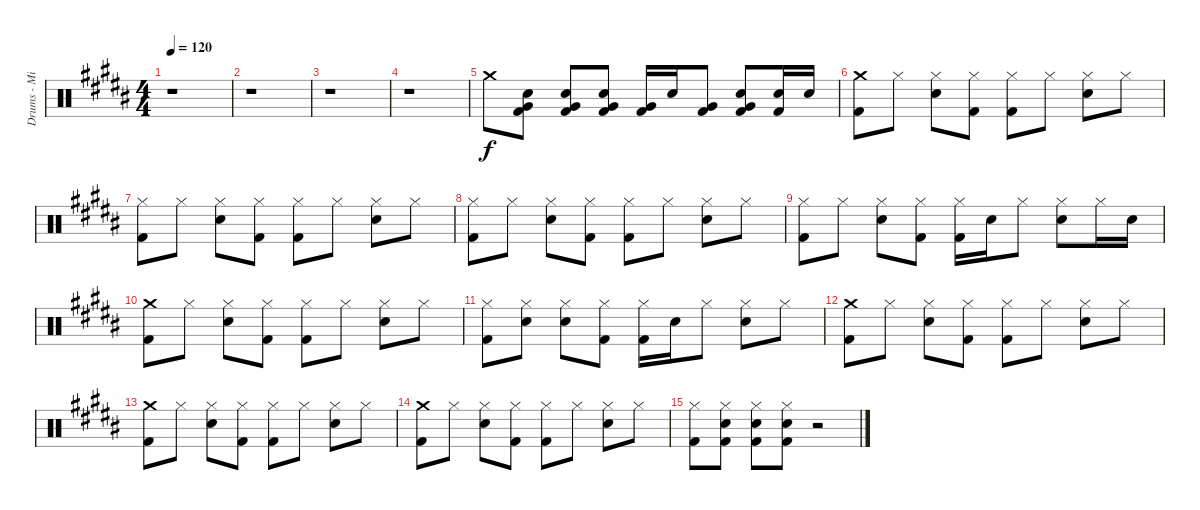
\track ("Drums - Minh-Thu" "Drums - Mi") {instrument percussion}
\staff {score}
\articulation defaults
\ts (4 4)
\tempo 120
\clef neutral
\ks b
r.1{dy f} |
r.1 |
r.1 |
r.1 |
"Crash medium (hit)".8 ("Electric Snare (hit)" "Very Low Tom (hit)" "Kick (hit) 2").8 ("Electric Snare (hit)" "Very Low Tom (hit)" "Kick (hit) 2").8 ("Electric Snare (hit)" "Very Low Tom (hit)" "Kick (hit) 2").8 ("Very Low Tom (hit)" "Kick (hit) 2").16 "Electric Snare (hit)".16 ("Very Low Tom (hit)" "Kick (hit) 2").8 ("Electric Snare (hit)" "Very Low Tom (hit)" "Kick (hit) 2").8 ("Electric Snare (hit)" "Kick (hit) 2").16 "Electric Snare (hit)".16 |
("Crash medium (hit)" "Kick (hit) 2").8 "Hi-Hat (closed)".8 ("Hi-Hat (closed)" "Electric Snare (hit)").8 ("Hi-Hat (closed)" "Kick (hit) 2").8 ("Hi-Hat (closed)" "Kick (hit) 2").8 "Hi-Hat (closed)".8 ("Hi-Hat (closed)" "Electric Snare (hit)").8 "Hi-Hat (closed)".8 |
("Hi-Hat (closed)" "Kick (hit) 2").8 "Hi-Hat (closed)".8 ("Hi-Hat (closed)" "Electric Snare (hit)").8 ("Hi-Hat (closed)" "Kick (hit) 2").8 ("Hi-Hat (closed)" "Kick (hit) 2").8 "Hi-Hat (closed)".8 ("Hi-Hat (closed)" "Electric Snare (hit)").8 "Hi-Hat (closed)".8 |
("Hi-Hat (closed)" "Kick (hit) 2").8 "Hi-Hat (closed)".8 ("Hi-Hat (closed)" "Electric Snare (hit)").8 ("Hi-Hat (closed)" "Kick (hit) 2").8 ("Hi-Hat (closed)" "Kick (hit) 2").8 "Hi-Hat (closed)".8 ("Hi-Hat (closed)" "Electric Snare (hit)").8 "Hi-Hat (closed)".8 |
("Hi-Hat (closed)" "Kick (hit) 2").8 "Hi-Hat (closed)".8 ("Hi-Hat (closed)" "Electric Snare (hit)").8 ("Hi-Hat (closed)" "Kick (hit) 2").8 ("Hi-Hat (closed)" "Kick (hit) 2").16 "Electric Snare (hit)".16 "Hi-Hat (closed)".8 ("Hi-Hat (closed)" "Electric Snare (hit)").8 "Hi-Hat (closed)".16 "Electric Snare (hit)".16 |
("Crash medium (hit)" "Kick (hit) 2").8 "Hi-Hat (closed)".8 ("Hi-Hat (closed)" "Electric Snare (hit)").8 ("Hi-Hat (closed)" "Kick (hit) 2").8 ("Hi-Hat (closed)" "Kick (hit) 2").8 "Hi-Hat (closed)".8 ("Hi-Hat (closed)" "Electric Snare (hit)").8 "Hi-Hat (closed)".8 |
("Hi-Hat (closed)" "Kick (hit) 2").8 ("Hi-Hat (closed)" "Electric Snare (hit)").8 ("Hi-Hat (closed)" "Electric Snare (hit)").8 ("Hi-Hat (closed)" "Kick (hit) 2").8 ("Hi-Hat (closed)" "Kick (hit) 2").16 "Electric Snare (hit)".16 "Hi-Hat (closed)".8 ("Hi-Hat (closed)" "Electric Snare (hit)").8 "Hi-Hat (closed)".8 |
("Crash medium (hit)" "Kick (hit) 2").8 "Hi-Hat (closed)".8 ("Hi-Hat (closed)" "Electric Snare (hit)").8 ("Hi-Hat (closed)" "Kick (hit) 2").8 ("Hi-Hat (closed)" "Kick (hit) 2").8 "Hi-Hat (closed)".8 ("Hi-Hat (closed)" "Electric Snare (hit)").8 "Hi-Hat (closed)".8 |
("Crash medium (hit)" "Kick (hit) 2").8 "Hi-Hat (closed)".8 ("Hi-Hat (closed)" "Electric Snare (hit)").8 ("Hi-Hat (closed)" "Kick (hit) 2").8 ("Hi-Hat (closed)" "Kick (hit) 2").8 "Hi-Hat (closed)".8 ("Hi-Hat (closed)" "Electric Snare (hit)").8 "Hi-Hat (closed)".8 |
("Crash medium (hit)" "Kick (hit) 2").8 "Hi-Hat (closed)".8 ("Hi-Hat (closed)" "Electric Snare (hit)").8 ("Hi-Hat (closed)" "Kick (hit) 2").8 ("Hi-Hat (closed)" "Kick (hit) 2").8 "Hi-Hat (closed)".8 ("Hi-Hat (closed)" "Electric Snare (hit)").8 "Hi-Hat (closed)".8 |
("Hi-Hat (closed)" "Kick (hit) 2").8 ("Hi-Hat (closed)" "Electric Snare (hit)" "Kick (hit) 2").8 ("Hi-Hat (closed)" "Electric Snare (hit)" "Kick (hit) 2").8 ("Hi-Hat (closed)" "Electric Snare (hit)" "Kick (hit) 2").8 r.2
